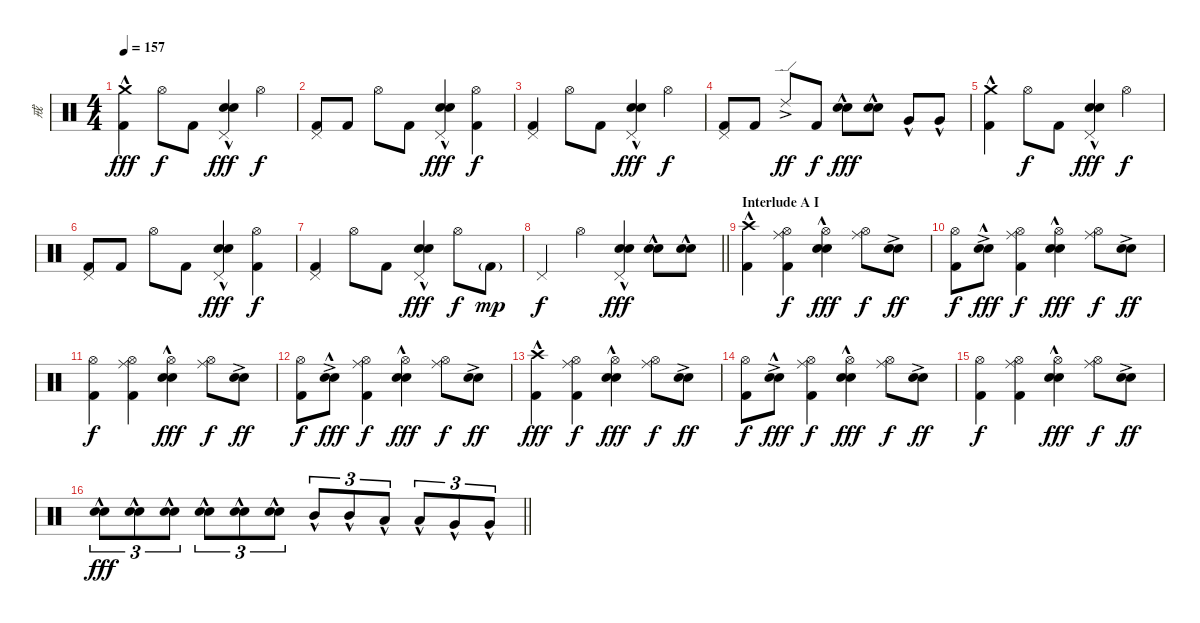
\track ("戒" "戒") {instrument percussion}
\staff {score}
\articulation defaults
\ts (4 4)
\section ("" "")
\tempo 157
\clef neutral
\ks c
("Crash medium (hit)"{hac} "Kick (hit) 2").4{dy fff} "Hi-Hat (open)".8{dy f} "Kick (hit) 2".8 ("Pedal Hi-Hat (hit)" "Electric Snare (hit)"{hac} "Snare (hit) 2"{hac}).4{dy fff} "Hi-Hat (open)".4{dy f} |
("Pedal Hi-Hat (hit)" "Kick (hit) 2").8 "Kick (hit) 2".8 "Hi-Hat (open)".8 "Kick (hit) 2".8 ("Pedal Hi-Hat (hit)" "Electric Snare (hit)"{hac} "Snare (hit) 2"{hac}).4{dy fff} ("Hi-Hat (open)" "Kick (hit) 2").4{dy f} |
("Pedal Hi-Hat (hit)" "Kick (hit) 2").4 "Hi-Hat (open)".8 "Kick (hit) 2".8 ("Pedal Hi-Hat (hit)" "Electric Snare (hit)"{hac} "Snare (hit) 2"{hac}).4{dy fff} "Hi-Hat (open)".4{dy f} |
("Pedal Hi-Hat (hit)" "Kick (hit) 2").8 "Kick (hit) 2".8 "Ride (edge) 2"{ac}.8{dy ff} "Kick (hit) 2".8{dy f} ("Electric Snare (hit)"{hac} "Snare (hit) 2"{hac}).8{dy fff} ("Electric Snare (hit)"{hac} "Snare (hit) 2"{hac}).8 "Very Low Tom (hit)"{hac}.8 "Very Low Tom (hit)"{hac}.8 |
("Crash medium (hit)"{hac} "Kick (hit) 2").4 "Hi-Hat (open)".8{dy f} "Kick (hit) 2".8 ("Pedal Hi-Hat (hit)" "Electric Snare (hit)"{hac} "Snare (hit) 2"{hac}).4{dy fff} "Hi-Hat (open)".4{dy f} |
("Pedal Hi-Hat (hit)" "Kick (hit) 2").8 "Kick (hit) 2".8 "Hi-Hat (open)".8 "Kick (hit) 2".8 ("Pedal Hi-Hat (hit)" "Electric Snare (hit)"{hac} "Snare (hit) 2"{hac}).4{dy fff} ("Hi-Hat (open)" "Kick (hit) 2").4{dy f} |
("Pedal Hi-Hat (hit)" "Kick (hit) 2").4 "Hi-Hat (open)".8 "Kick (hit) 2".8 ("Pedal Hi-Hat (hit)" "Electric Snare (hit)"{hac} "Snare (hit) 2"{hac}).4{dy fff} "Hi-Hat (open)".8{dy f} "Kick (hit) 2"{g}.8{dy mp} |
\barLineRight lightlight "Pedal Hi-Hat (hit)".4{dy f} "Hi-Hat (open)".4
("Pedal Hi-Hat (hit)" "Electric Snare (hit)"{hac} "Snare (hit) 2"{hac}).4{dy fff} ("Electric Snare (hit)"{hac} "Snare (hit) 2"{hac}).8 ("Electric Snare (hit)"{hac} "Snare (hit) 2"{hac}).8 |
\section ("" "Interlude A I")
("Crash high (hit)"{hac} "Kick (hit) 2").4 ("Hi-Hat (open)" "Ride (middle)" "Kick (hit) 2").4{dy f} ("Hi-Hat (open)" "Electric Snare (hit)"{hac} "Snare (hit) 2"{hac}).4{dy fff} ("Hi-Hat (open)" "Ride (middle)").8{dy f} ("Electric Snare (hit)"{ac} "Snare (hit) 2").8{dy ff} |
("Hi-Hat (open)" "Kick (hit) 2").8{dy f} ("Electric Snare (hit)"{ac} "Snare (hit) 2"{hac}).8{dy fff} ("Hi-Hat (open)" "Ride (middle)" "Kick (hit) 2").4{dy f} ("Hi-Hat (open)" "Electric Snare (hit)"{hac} "Snare (hit) 2"{hac}).4{dy fff} ("Hi-Hat (open)" "Ride (middle)").8{dy f} ("Electric Snare (hit)"{ac} "Snare (hit) 2").8{dy ff} |
("Hi-Hat (open)" "Kick (hit) 2").4{dy f} ("Hi-Hat (open)" "Ride (middle)" "Kick (hit) 2").4 ("Hi-Hat (open)" "Electric Snare (hit)"{hac} "Snare (hit) 2"{hac}).4{dy fff} ("Hi-Hat (open)" "Ride (middle)").8{dy f} ("Electric Snare (hit)"{ac} "Snare (hit) 2").8{dy ff} |
("Hi-Hat (open)" "Kick (hit) 2").8{dy f} ("Electric Snare (hit)"{ac} "Snare (hit) 2"{hac}).8{dy fff} ("Hi-Hat (open)" "Ride (middle)" "Kick (hit) 2").4{dy f} ("Hi-Hat (open)" "Electric Snare (hit)"{hac} "Snare (hit) 2"{hac}).4{dy fff} ("Hi-Hat (open)" "Ride (middle)").8{dy f} ("Electric Snare (hit)"{ac} "Snare (hit) 2").8{dy ff} |
("Crash high (hit)"{hac} "Kick (hit) 2").4{dy fff} ("Hi-Hat (open)" "Ride (middle)" "Kick (hit) 2").4{dy f} ("Hi-Hat (open)" "Electric Snare (hit)"{hac} "Snare (hit) 2"{hac}).4{dy fff} ("Hi-Hat (open)" "Ride (middle)").8{dy f} ("Electric Snare (hit)"{ac} "Snare (hit) 2").8{dy ff} |
("Hi-Hat (open)" "Kick (hit) 2").8{dy f} ("Electric Snare (hit)"{ac} "Snare (hit) 2"{hac}).8{dy fff} ("Hi-Hat (open)" "Ride (middle)" "Kick (hit) 2").4{dy f} ("Hi-Hat (open)" "Electric Snare (hit)"{hac} "Snare (hit) 2"{hac}).4{dy fff} ("Hi-Hat (open)" "Ride (middle)").8{dy f} ("Electric Snare (hit)"{ac} "Snare (hit) 2").8{dy ff} |
("Hi-Hat (open)" "Kick (hit) 2").4{dy f} ("Hi-Hat (open)" "Ride (middle)" "Kick (hit) 2").4 ("Hi-Hat (open)" "Electric Snare (hit)"{hac} "Snare (hit) 2"{hac}).4{dy fff} ("Hi-Hat (open)" "Ride (middle)").8{dy f} ("Electric Snare (hit)"{ac} "Snare (hit) 2").8{dy ff} |
\barLineRight lightlight
("Electric Snare (hit)"{hac} "Snare (hit) 2"{hac}).8{tu (3 2) dy fff} ("Electric Snare (hit)"{hac} "Snare (hit) 2"{hac}).8{tu (3 2)} ("Electric Snare (hit)"{hac} "Snare (hit) 2"{hac}).8{tu (3 2)} ("Electric Snare (hit)"{hac} "Snare (hit) 2"{hac}).8{tu (3 2)} ("Electric Snare (hit)"{hac} "Snare (hit) 2"{hac}).8{tu (3 2)} ("Electric Snare (hit)"{hac} "Snare (hit) 2"{hac}).8{tu (3 2)} "Mid Tom (hit)"{hac}.8{tu (3 2)} "Mid Tom (hit)"{hac}.8{tu (3 2)} "Low Tom (hit)"{hac}.8{tu (3 2)} "Low Tom (hit)"{hac}.8{tu (3 2)} "Very Low Tom (hit)"{hac}.8{tu (3 2)} "Very Low Tom (hit)"{hac}.8{tu (3 2)}
